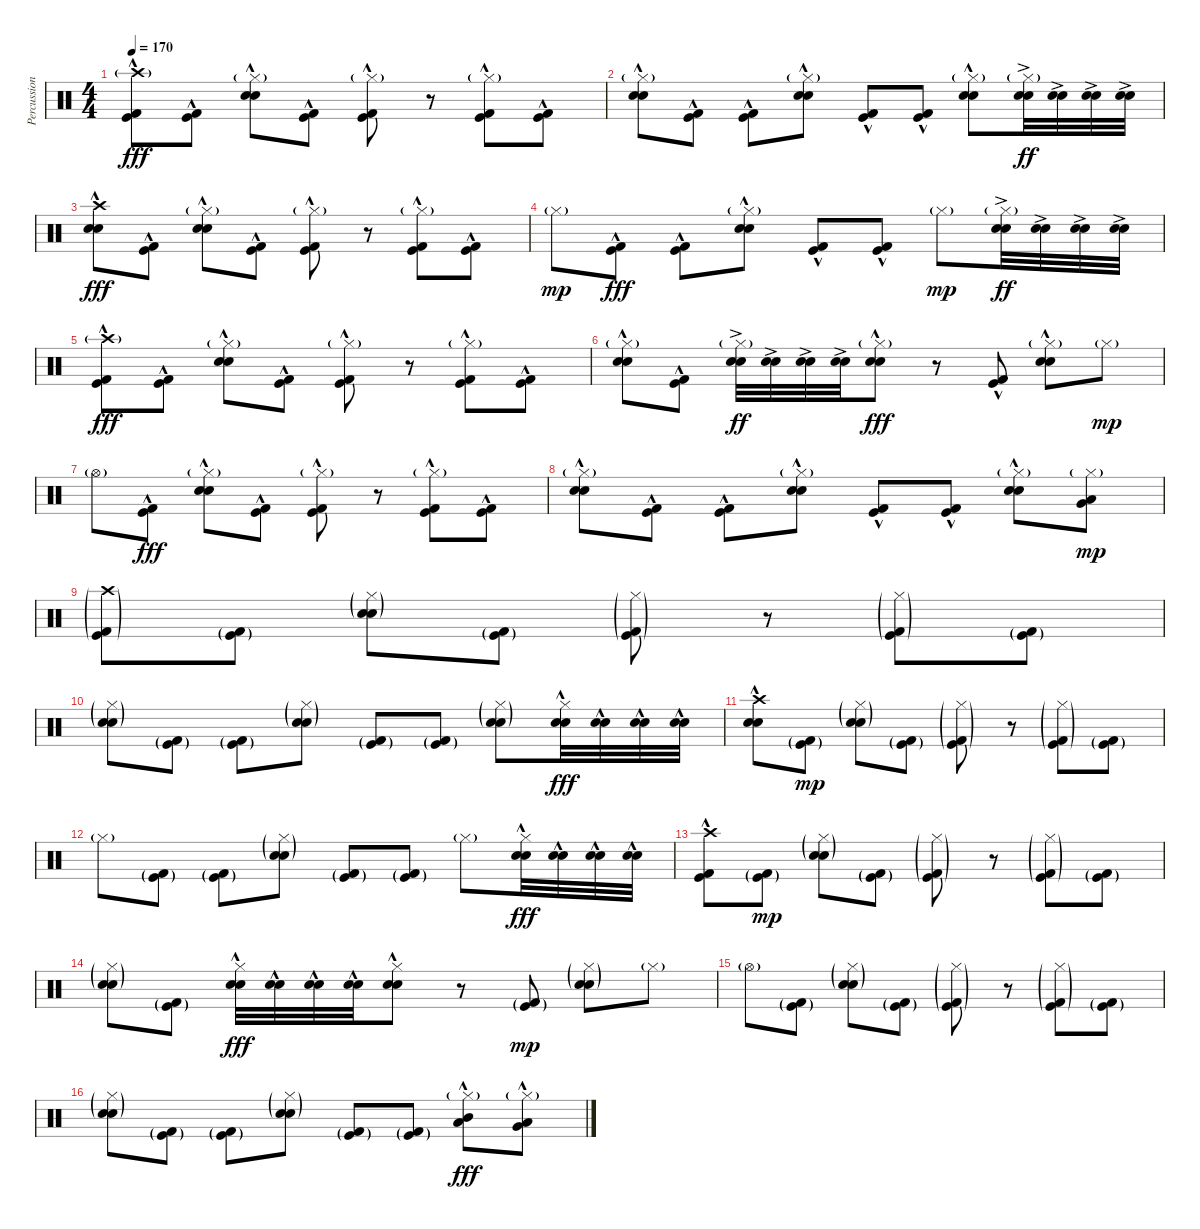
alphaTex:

\track ("Percussion" "Percussion") {instrument percussion}
\staff {score}
\articulation defaults
\ts (4 4)
\tempo 170
\clef neutral
\ks c
("Crash high (hit)"{g} "Kick (hit) 2"{hac} "Kick (hit)"{hac}).8{dy fff} ("Kick (hit) 2"{hac} "Kick (hit)"{hac}).8 ("Hi-Hat (closed)"{g} "Snare (hit) 2"{hac} "Electric Snare (hit)"{hac}).8 ("Kick (hit) 2"{hac} "Kick (hit)"{hac}).8 ("Hi-Hat (closed)"{g} "Kick (hit) 2"{hac} "Kick (hit)"{hac}).8 r.8 ("Hi-Hat (closed)"{g} "Kick (hit) 2"{hac} "Kick (hit)"{hac}).8 ("Kick (hit) 2"{hac} "Kick (hit)"{hac}).8 |
("Hi-Hat (closed)"{g} "Snare (hit) 2"{hac} "Electric Snare (hit)"{hac}).8 ("Kick (hit) 2"{hac} "Kick (hit)"{hac}).8 ("Kick (hit) 2"{hac} "Kick (hit)"{hac}).8 ("Hi-Hat (closed)"{g} "Snare (hit) 2"{hac} "Electric Snare (hit)"{hac}).8 ("Kick (hit) 2"{hac} "Kick (hit)"{hac}).8 ("Kick (hit) 2"{hac} "Kick (hit)"{hac}).8 ("Hi-Hat (closed)"{g} "Snare (hit) 2"{hac} "Electric Snare (hit)"{hac}).8 ("Hi-Hat (closed)"{g} "Snare (hit) 2" "Electric Snare (hit)"{ac}).32{dy ff} ("Snare (hit) 2" "Electric Snare (hit)"{ac}).32 ("Snare (hit) 2" "Electric Snare (hit)"{ac}).32 ("Snare (hit) 2" "Electric Snare (hit)"{ac}).32 |
("Crash high (hit)" "Snare (hit) 2"{hac} "Electric Snare (hit)"{hac}).8{dy fff} ("Kick (hit) 2"{hac} "Kick (hit)"{hac}).8 ("Hi-Hat (closed)"{g} "Snare (hit) 2"{hac} "Electric Snare (hit)"{hac}).8 ("Kick (hit) 2"{hac} "Kick (hit)"{hac}).8 ("Hi-Hat (closed)"{g} "Kick (hit) 2"{hac} "Kick (hit)"{hac}).8 r.8 ("Hi-Hat (closed)"{g} "Kick (hit) 2"{hac} "Kick (hit)"{hac}).8 ("Kick (hit) 2"{hac} "Kick (hit)"{hac}).8 |
"Hi-Hat (closed)"{g}.8{dy mp} ("Kick (hit) 2"{hac} "Kick (hit)"{hac}).8{dy fff} ("Kick (hit) 2"{hac} "Kick (hit)"{hac}).8 ("Hi-Hat (closed)"{g} "Snare (hit) 2"{hac} "Electric Snare (hit)"{hac}).8 ("Kick (hit) 2"{hac} "Kick (hit)"{hac}).8 ("Kick (hit) 2"{hac} "Kick (hit)"{hac}).8 "Hi-Hat (closed)"{g}.8{dy mp} ("Hi-Hat (closed)"{g} "Snare (hit) 2" "Electric Snare (hit)"{ac}).32{dy ff} ("Snare (hit) 2" "Electric Snare (hit)"{ac}).32 ("Snare (hit) 2" "Electric Snare (hit)"{ac}).32 ("Snare (hit) 2" "Electric Snare (hit)"{ac}).32 |
("Crash high (hit)"{g} "Kick (hit) 2"{hac} "Kick (hit)"{hac}).8{dy fff} ("Kick (hit) 2"{hac} "Kick (hit)"{hac}).8 ("Hi-Hat (closed)"{g} "Snare (hit) 2"{hac} "Electric Snare (hit)"{hac}).8 ("Kick (hit) 2"{hac} "Kick (hit)"{hac}).8 ("Hi-Hat (closed)"{g} "Kick (hit) 2"{hac} "Kick (hit)"{hac}).8 r.8 ("Hi-Hat (closed)"{g} "Kick (hit) 2"{hac} "Kick (hit)"{hac}).8 ("Kick (hit) 2"{hac} "Kick (hit)"{hac}).8 |
("Hi-Hat (closed)"{g} "Snare (hit) 2"{hac} "Electric Snare (hit)"{hac}).8 ("Kick (hit) 2"{hac} "Kick (hit)"{hac}).8 ("Hi-Hat (closed)"{g} "Snare (hit) 2" "Electric Snare (hit)"{ac}).32{dy ff} ("Snare (hit) 2" "Electric Snare (hit)"{ac}).32 ("Snare (hit) 2" "Electric Snare (hit)"{ac}).32 ("Snare (hit) 2" "Electric Snare (hit)"{ac}).32 ("Hi-Hat (closed)"{g} "Snare (hit) 2"{hac} "Electric Snare (hit)"{hac}).8{dy fff} r.8 ("Kick (hit) 2"{hac} "Kick (hit)"{hac}).8 ("Hi-Hat (closed)"{g} "Snare (hit) 2"{hac} "Electric Snare (hit)"{hac}).8 "Hi-Hat (closed)"{g}.8{dy mp} |
"Hi-Hat (open)"{g}.8 ("Kick (hit) 2"{hac} "Kick (hit)"{hac}).8{dy fff} ("Hi-Hat (closed)"{g} "Snare (hit) 2"{hac} "Electric Snare (hit)"{hac}).8 ("Kick (hit) 2"{hac} "Kick (hit)"{hac}).8 ("Hi-Hat (closed)"{g} "Kick (hit) 2"{hac} "Kick (hit)"{hac}).8 r.8 ("Hi-Hat (closed)"{g} "Kick (hit) 2"{hac} "Kick (hit)"{hac}).8 ("Kick (hit) 2"{hac} "Kick (hit)"{hac}).8 |
("Hi-Hat (closed)"{g} "Snare (hit) 2"{hac} "Electric Snare (hit)"{hac}).8 ("Kick (hit) 2"{hac} "Kick (hit)"{hac}).8 ("Kick (hit) 2"{hac} "Kick (hit)"{hac}).8 ("Hi-Hat (closed)"{g} "Snare (hit) 2"{hac} "Electric Snare (hit)"{hac}).8 ("Kick (hit) 2"{hac} "Kick (hit)"{hac}).8 ("Kick (hit) 2"{hac} "Kick (hit)"{hac}).8 ("Hi-Hat (closed)"{g} "Snare (hit) 2"{hac} "Electric Snare (hit)"{hac}).8 ("Hi-Hat (closed)"{g} "Low Tom (hit)" "Very Low Tom (hit)").8{dy mp} |
("Crash high (hit)"{g} "Kick (hit) 2"{g} "Kick (hit)"{g}).8 ("Kick (hit) 2"{g} "Kick (hit)"{g}).8 ("Hi-Hat (closed)"{g} "Snare (hit) 2"{g} "Electric Snare (hit)"{g}).8 ("Kick (hit) 2"{g} "Kick (hit)"{g}).8 ("Hi-Hat (closed)"{g} "Kick (hit) 2"{g} "Kick (hit)"{g}).8 r.8 ("Hi-Hat (closed)"{g} "Kick (hit) 2"{g} "Kick (hit)"{g}).8 ("Kick (hit) 2"{g} "Kick (hit)"{g}).8 |
("Hi-Hat (closed)"{g} "Snare (hit) 2"{g} "Electric Snare (hit)"{g}).8 ("Kick (hit) 2"{g} "Kick (hit)"{g}).8 ("Kick (hit) 2"{g} "Kick (hit)"{g}).8 ("Hi-Hat (closed)"{g} "Snare (hit) 2"{g} "Electric Snare (hit)"{g}).8 ("Kick (hit) 2"{g} "Kick (hit)"{g}).8 ("Kick (hit) 2"{g} "Kick (hit)"{g}).8 ("Hi-Hat (closed)"{g} "Snare (hit) 2"{g} "Electric Snare (hit)"{g}).8 ("Hi-Hat (closed)"{hac} "Snare (hit) 2"{hac} "Electric Snare (hit)"{hac}).32{dy fff} ("Snare (hit) 2"{hac} "Electric Snare (hit)"{hac}).32 ("Snare (hit) 2"{hac} "Electric Snare (hit)"{hac}).32 ("Snare (hit) 2"{hac} "Electric Snare (hit)"{hac}).32 |
("Crash high (hit)"{hac} "Snare (hit) 2"{hac} "Electric Snare (hit)"{hac}).8 ("Kick (hit) 2"{g} "Kick (hit)"{g}).8{dy mp} ("Hi-Hat (closed)"{g} "Snare (hit) 2"{g} "Electric Snare (hit)"{g}).8 ("Kick (hit) 2"{g} "Kick (hit)"{g}).8 ("Hi-Hat (closed)"{g} "Kick (hit) 2"{g} "Kick (hit)"{g}).8 r.8 ("Hi-Hat (closed)"{g} "Kick (hit) 2"{g} "Kick (hit)"{g}).8 ("Kick (hit) 2"{g} "Kick (hit)"{g}).8 |
"Hi-Hat (closed)"{g}.8 ("Kick (hit) 2"{g} "Kick (hit)"{g}).8 ("Kick (hit) 2"{g} "Kick (hit)"{g}).8 ("Hi-Hat (closed)"{g} "Snare (hit) 2"{g} "Electric Snare (hit)"{g}).8 ("Kick (hit) 2"{g} "Kick (hit)"{g}).8 ("Kick (hit) 2"{g} "Kick (hit)"{g}).8 "Hi-Hat (closed)"{g}.8 ("Hi-Hat (closed)"{hac} "Snare (hit) 2"{hac} "Electric Snare (hit)"{hac}).32{dy fff} ("Snare (hit) 2"{hac} "Electric Snare (hit)"{hac}).32 ("Snare (hit) 2"{hac} "Electric Snare (hit)"{hac}).32 ("Snare (hit) 2"{hac} "Electric Snare (hit)"{hac}).32 |
("Crash high (hit)"{hac} "Kick (hit) 2"{hac} "Kick (hit)"{hac}).8 ("Kick (hit) 2"{g} "Kick (hit)"{g}).8{dy mp} ("Hi-Hat (closed)"{g} "Snare (hit) 2"{g} "Electric Snare (hit)"{g}).8 ("Kick (hit) 2"{g} "Kick (hit)"{g}).8 ("Hi-Hat (closed)"{g} "Kick (hit) 2"{g} "Kick (hit)"{g}).8 r.8 ("Hi-Hat (closed)"{g} "Kick (hit) 2"{g} "Kick (hit)"{g}).8 ("Kick (hit) 2"{g} "Kick (hit)"{g}).8 |
("Hi-Hat (closed)"{g} "Snare (hit) 2"{g} "Electric Snare (hit)"{g}).8 ("Kick (hit) 2"{g} "Kick (hit)"{g}).8 ("Hi-Hat (closed)"{hac} "Snare (hit) 2"{hac} "Electric Snare (hit)"{hac}).32{dy fff} ("Snare (hit) 2"{hac} "Electric Snare (hit)"{hac}).32 ("Snare (hit) 2"{hac} "Electric Snare (hit)"{hac}).32 ("Snare (hit) 2"{hac} "Electric Snare (hit)"{hac}).32 ("Hi-Hat (closed)"{hac} "Snare (hit) 2"{hac} "Electric Snare (hit)"{hac}).8 r.8 ("Kick (hit) 2"{g} "Kick (hit)"{g}).8{dy mp} ("Hi-Hat (closed)"{g} "Snare (hit) 2"{g} "Electric Snare (hit)"{g}).8 "Hi-Hat (closed)"{g}.8 |
"Hi-Hat (open)"{g}.8 ("Kick (hit) 2"{g} "Kick (hit)"{g}).8 ("Hi-Hat (closed)"{g} "Snare (hit) 2"{g} "Electric Snare (hit)"{g}).8 ("Kick (hit) 2"{g} "Kick (hit)"{g}).8 ("Hi-Hat (closed)"{g} "Kick (hit) 2"{g} "Kick (hit)"{g}).8 r.8 ("Hi-Hat (closed)"{g} "Kick (hit) 2"{g} "Kick (hit)"{g}).8 ("Kick (hit) 2"{g} "Kick (hit)"{g}).8 |
("Hi-Hat (closed)"{g} "Snare (hit) 2"{g} "Electric Snare (hit)"{g}).8 ("Kick (hit) 2"{g} "Kick (hit)"{g}).8 ("Kick (hit) 2"{g} "Kick (hit)"{g}).8 ("Hi-Hat (closed)"{g} "Snare (hit) 2"{g} "Electric Snare (hit)"{g}).8 ("Kick (hit) 2"{g} "Kick (hit)"{g}).8 ("Kick (hit) 2"{g} "Kick (hit)"{g}).8 ("Hi-Hat (closed)"{g} "Mid Tom (hit)"{hac} "Low Tom (hit)"{hac}).8{dy fff} ("Hi-Hat (closed)"{g} "Low Tom (hit)"{hac} "Very Low Tom (hit)"{hac}).8
